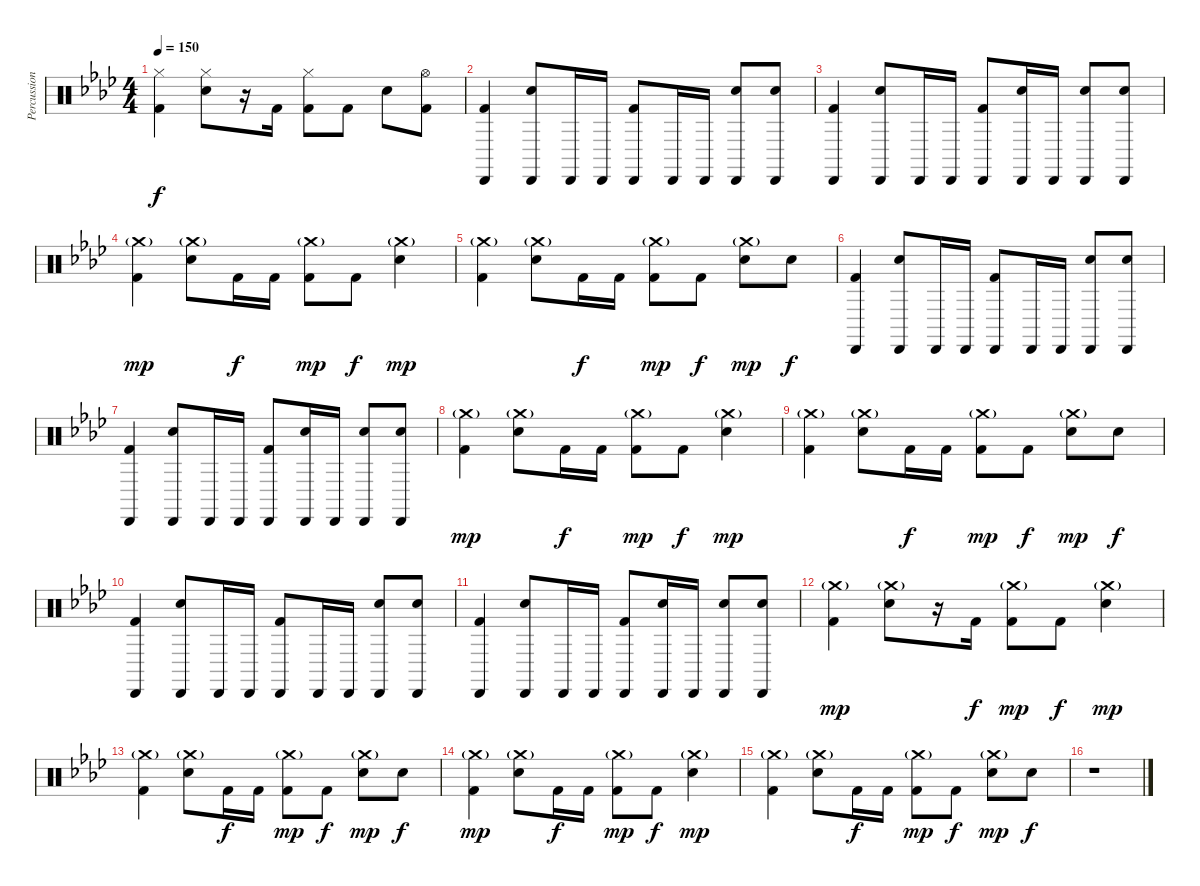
\track ("Percussions 2" "Percussion") {instrument percussion}
\staff {score}
\articulation defaults
\ts (4 4)
\tempo 150
\clef neutral
\ks ab
("Hi-Hat (closed)" "Kick (hit) 2").4{dy f} ("Hi-Hat (closed)" "Snare (hit) 2").8 r.16 "Kick (hit) 2".16 ("Hi-Hat (closed)" "Kick (hit) 2").8 "Kick (hit) 2".8 "Snare (hit) 2".8 ("Hi-Hat (open)" "Kick (hit) 2").8 |
("Cabasa (hit)" "Kick (hit) 2").4 ("Cabasa (hit)" "Snare (hit) 2").8 "Cabasa (hit)".16 "Cabasa (hit)".16 ("Cabasa (hit)" "Kick (hit) 2").8 "Cabasa (hit)".16 "Cabasa (hit)".16 ("Cabasa (hit)" "Snare (hit) 2").8 ("Cabasa (hit)" "Snare (hit) 2").8 |
("Cabasa (hit)" "Kick (hit) 2").4 ("Cabasa (hit)" "Snare (hit) 2").8 "Cabasa (hit)".16 "Cabasa (hit)".16 ("Cabasa (hit)" "Kick (hit) 2").8 ("Cabasa (hit)" "Snare (hit) 2").16 "Cabasa (hit)".16 ("Cabasa (hit)" "Snare (hit) 2").8 ("Cabasa (hit)" "Snare (hit) 2").8 |
("Crash medium (hit)"{g} "Kick (hit) 2").4{dy mp} ("Crash medium (hit)"{g} "Snare (hit) 2").8 "Kick (hit) 2".16{dy f} "Kick (hit) 2".16 ("Crash medium (hit)"{g} "Kick (hit) 2").8{dy mp} "Kick (hit) 2".8{dy f} ("Crash medium (hit)"{g} "Snare (hit) 2").4{dy mp} |
("Crash medium (hit)"{g} "Kick (hit) 2").4 ("Crash medium (hit)"{g} "Snare (hit) 2").8 "Kick (hit) 2".16{dy f} "Kick (hit) 2".16 ("Crash medium (hit)"{g} "Kick (hit) 2").8{dy mp} "Kick (hit) 2".8{dy f} ("Crash medium (hit)"{g} "Snare (hit) 2").8{dy mp} "Snare (hit) 2".8{dy f} |
("Cabasa (hit)" "Kick (hit) 2").4 ("Cabasa (hit)" "Snare (hit) 2").8 "Cabasa (hit)".16 "Cabasa (hit)".16 ("Cabasa (hit)" "Kick (hit) 2").8 "Cabasa (hit)".16 "Cabasa (hit)".16 ("Cabasa (hit)" "Snare (hit) 2").8 ("Cabasa (hit)" "Snare (hit) 2").8 |
("Cabasa (hit)" "Kick (hit) 2").4 ("Cabasa (hit)" "Snare (hit) 2").8 "Cabasa (hit)".16 "Cabasa (hit)".16 ("Cabasa (hit)" "Kick (hit) 2").8 ("Cabasa (hit)" "Snare (hit) 2").16 "Cabasa (hit)".16 ("Cabasa (hit)" "Snare (hit) 2").8 ("Cabasa (hit)" "Snare (hit) 2").8 |
("Crash medium (hit)"{g} "Kick (hit) 2").4{dy mp} ("Crash medium (hit)"{g} "Snare (hit) 2").8 "Kick (hit) 2".16{dy f} "Kick (hit) 2".16 ("Crash medium (hit)"{g} "Kick (hit) 2").8{dy mp} "Kick (hit) 2".8{dy f} ("Crash medium (hit)"{g} "Snare (hit) 2").4{dy mp} |
("Crash medium (hit)"{g} "Kick (hit) 2").4 ("Crash medium (hit)"{g} "Snare (hit) 2").8 "Kick (hit) 2".16{dy f} "Kick (hit) 2".16 ("Crash medium (hit)"{g} "Kick (hit) 2").8{dy mp} "Kick (hit) 2".8{dy f} ("Crash medium (hit)"{g} "Snare (hit) 2").8{dy mp} "Snare (hit) 2".8{dy f} |
("Cabasa (hit)" "Kick (hit) 2").4 ("Cabasa (hit)" "Snare (hit) 2").8 "Cabasa (hit)".16 "Cabasa (hit)".16 ("Cabasa (hit)" "Kick (hit) 2").8 "Cabasa (hit)".16 "Cabasa (hit)".16 ("Cabasa (hit)" "Snare (hit) 2").8 ("Cabasa (hit)" "Snare (hit) 2").8 |
("Cabasa (hit)" "Kick (hit) 2").4 ("Cabasa (hit)" "Snare (hit) 2").8 "Cabasa (hit)".16 "Cabasa (hit)".16 ("Cabasa (hit)" "Kick (hit) 2").8 ("Cabasa (hit)" "Snare (hit) 2").16 "Cabasa (hit)".16 ("Cabasa (hit)" "Snare (hit) 2").8 ("Cabasa (hit)" "Snare (hit) 2").8 |
("Crash medium (hit)"{g} "Kick (hit) 2").4{dy mp} ("Crash medium (hit)"{g} "Snare (hit) 2").8 r.16 "Kick (hit) 2".16{dy f} ("Crash medium (hit)"{g} "Kick (hit) 2").8{dy mp} "Kick (hit) 2".8{dy f} ("Crash medium (hit)"{g} "Snare (hit) 2").4{dy mp} |
("Crash medium (hit)"{g} "Kick (hit) 2").4 ("Crash medium (hit)"{g} "Snare (hit) 2").8 "Kick (hit) 2".16{dy f} "Kick (hit) 2".16 ("Crash medium (hit)"{g} "Kick (hit) 2").8{dy mp} "Kick (hit) 2".8{dy f} ("Crash medium (hit)"{g} "Snare (hit) 2").8{dy mp} "Snare (hit) 2".8{dy f} |
("Crash medium (hit)"{g} "Kick (hit) 2").4{dy mp} ("Crash medium (hit)"{g} "Snare (hit) 2").8 "Kick (hit) 2".16{dy f} "Kick (hit) 2".16 ("Crash medium (hit)"{g} "Kick (hit) 2").8{dy mp} "Kick (hit) 2".8{dy f} ("Crash medium (hit)"{g} "Snare (hit) 2").4{dy mp} |
("Crash medium (hit)"{g} "Kick (hit) 2").4 ("Crash medium (hit)"{g} "Snare (hit) 2").8 "Kick (hit) 2".16{dy f} "Kick (hit) 2".16 ("Crash medium (hit)"{g} "Kick (hit) 2").8{dy mp} "Kick (hit) 2".8{dy f} ("Crash medium (hit)"{g} "Snare (hit) 2").8{dy mp} "Snare (hit) 2".8{dy f} |
r.1
